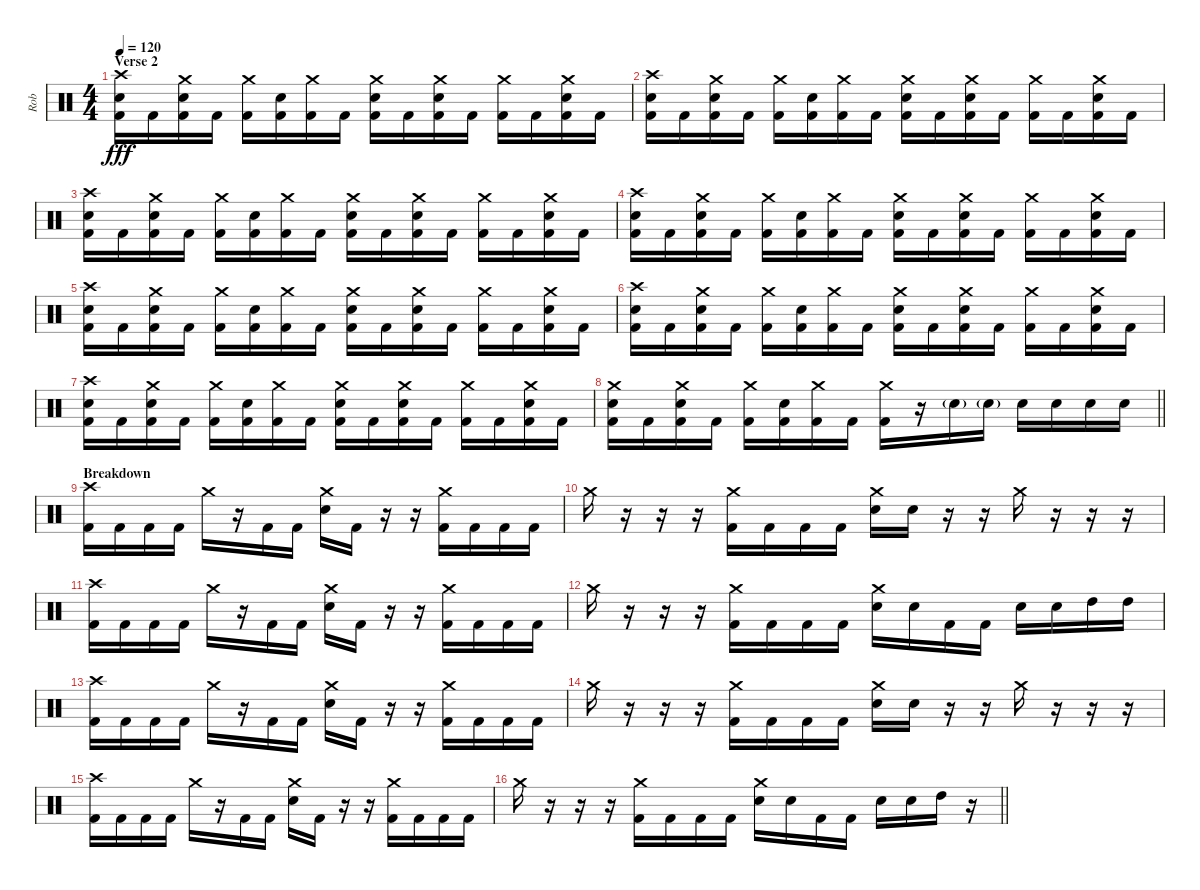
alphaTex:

\track ("Rob" "Rob") {instrument percussion}
\staff {score}
\articulation defaults
\ts (4 4)
\section ("" "Verse 2")
\tempo 120
\clef neutral
\ks c
("Crash high (hit)" "Electric Snare (hit)" "Kick (hit) 2").16{dy fff} "Kick (hit) 2".16 ("Crash medium (hit)" "Electric Snare (hit)" "Kick (hit) 2").16 "Kick (hit) 2".16 ("Crash medium (hit)" "Kick (hit) 2").16 ("Electric Snare (hit)" "Kick (hit) 2").16 ("Crash medium (hit)" "Kick (hit) 2").16 "Kick (hit) 2".16 ("Crash medium (hit)" "Electric Snare (hit)" "Kick (hit) 2").16 "Kick (hit) 2".16 ("Crash medium (hit)" "Electric Snare (hit)" "Kick (hit) 2").16 "Kick (hit) 2".16 ("Crash medium (hit)" "Kick (hit) 2").16 "Kick (hit) 2".16 ("Crash medium (hit)" "Electric Snare (hit)" "Kick (hit) 2").16 "Kick (hit) 2".16 |
("Crash high (hit)" "Electric Snare (hit)" "Kick (hit) 2").16 "Kick (hit) 2".16 ("Crash medium (hit)" "Electric Snare (hit)" "Kick (hit) 2").16 "Kick (hit) 2".16 ("Crash medium (hit)" "Kick (hit) 2").16 ("Electric Snare (hit)" "Kick (hit) 2").16 ("Crash medium (hit)" "Kick (hit) 2").16 "Kick (hit) 2".16 ("Crash medium (hit)" "Electric Snare (hit)" "Kick (hit) 2").16 "Kick (hit) 2".16 ("Crash medium (hit)" "Electric Snare (hit)" "Kick (hit) 2").16 "Kick (hit) 2".16 ("Crash medium (hit)" "Kick (hit) 2").16 "Kick (hit) 2".16 ("Crash medium (hit)" "Electric Snare (hit)" "Kick (hit) 2").16 "Kick (hit) 2".16 |
("Crash high (hit)" "Electric Snare (hit)" "Kick (hit) 2").16 "Kick (hit) 2".16 ("Crash medium (hit)" "Electric Snare (hit)" "Kick (hit) 2").16 "Kick (hit) 2".16 ("Crash medium (hit)" "Kick (hit) 2").16 ("Electric Snare (hit)" "Kick (hit) 2").16 ("Crash medium (hit)" "Kick (hit) 2").16 "Kick (hit) 2".16 ("Crash medium (hit)" "Electric Snare (hit)" "Kick (hit) 2").16 "Kick (hit) 2".16 ("Crash medium (hit)" "Electric Snare (hit)" "Kick (hit) 2").16 "Kick (hit) 2".16 ("Crash medium (hit)" "Kick (hit) 2").16 "Kick (hit) 2".16 ("Crash medium (hit)" "Electric Snare (hit)" "Kick (hit) 2").16 "Kick (hit) 2".16 |
("Crash high (hit)" "Electric Snare (hit)" "Kick (hit) 2").16 "Kick (hit) 2".16 ("Crash medium (hit)" "Electric Snare (hit)" "Kick (hit) 2").16 "Kick (hit) 2".16 ("Crash medium (hit)" "Kick (hit) 2").16 ("Electric Snare (hit)" "Kick (hit) 2").16 ("Crash medium (hit)" "Kick (hit) 2").16 "Kick (hit) 2".16 ("Crash medium (hit)" "Electric Snare (hit)" "Kick (hit) 2").16 "Kick (hit) 2".16 ("Crash medium (hit)" "Electric Snare (hit)" "Kick (hit) 2").16 "Kick (hit) 2".16 ("Crash medium (hit)" "Kick (hit) 2").16 "Kick (hit) 2".16 ("Crash medium (hit)" "Electric Snare (hit)" "Kick (hit) 2").16 "Kick (hit) 2".16 |
("Crash high (hit)" "Electric Snare (hit)" "Kick (hit) 2").16 "Kick (hit) 2".16 ("Crash medium (hit)" "Electric Snare (hit)" "Kick (hit) 2").16 "Kick (hit) 2".16 ("Crash medium (hit)" "Kick (hit) 2").16 ("Electric Snare (hit)" "Kick (hit) 2").16 ("Crash medium (hit)" "Kick (hit) 2").16 "Kick (hit) 2".16 ("Crash medium (hit)" "Electric Snare (hit)" "Kick (hit) 2").16 "Kick (hit) 2".16 ("Crash medium (hit)" "Electric Snare (hit)" "Kick (hit) 2").16 "Kick (hit) 2".16 ("Crash medium (hit)" "Kick (hit) 2").16 "Kick (hit) 2".16 ("Crash medium (hit)" "Electric Snare (hit)" "Kick (hit) 2").16 "Kick (hit) 2".16 |
("Crash high (hit)" "Electric Snare (hit)" "Kick (hit) 2").16 "Kick (hit) 2".16 ("Crash medium (hit)" "Electric Snare (hit)" "Kick (hit) 2").16 "Kick (hit) 2".16 ("Crash medium (hit)" "Kick (hit) 2").16 ("Electric Snare (hit)" "Kick (hit) 2").16 ("Crash medium (hit)" "Kick (hit) 2").16 "Kick (hit) 2".16 ("Crash medium (hit)" "Electric Snare (hit)" "Kick (hit) 2").16 "Kick (hit) 2".16 ("Crash medium (hit)" "Electric Snare (hit)" "Kick (hit) 2").16 "Kick (hit) 2".16 ("Crash medium (hit)" "Kick (hit) 2").16 "Kick (hit) 2".16 ("Crash medium (hit)" "Electric Snare (hit)" "Kick (hit) 2").16 "Kick (hit) 2".16 |
("Crash high (hit)" "Electric Snare (hit)" "Kick (hit) 2").16 "Kick (hit) 2".16 ("Crash medium (hit)" "Electric Snare (hit)" "Kick (hit) 2").16 "Kick (hit) 2".16 ("Crash medium (hit)" "Kick (hit) 2").16 ("Electric Snare (hit)" "Kick (hit) 2").16 ("Crash medium (hit)" "Kick (hit) 2").16 "Kick (hit) 2".16 ("Crash medium (hit)" "Electric Snare (hit)" "Kick (hit) 2").16 "Kick (hit) 2".16 ("Crash medium (hit)" "Electric Snare (hit)" "Kick (hit) 2").16 "Kick (hit) 2".16 ("Crash medium (hit)" "Kick (hit) 2").16 "Kick (hit) 2".16 ("Crash medium (hit)" "Electric Snare (hit)" "Kick (hit) 2").16 "Kick (hit) 2".16 |
\barLineRight lightlight
("Crash medium (hit)" "Electric Snare (hit)" "Kick (hit) 2").16 "Kick (hit) 2".16 ("Crash medium (hit)" "Electric Snare (hit)" "Kick (hit) 2").16 "Kick (hit) 2".16 ("Crash medium (hit)" "Kick (hit) 2").16 ("Electric Snare (hit)" "Kick (hit) 2").16 ("Crash medium (hit)" "Kick (hit) 2").16 "Kick (hit) 2".16 ("Crash medium (hit)" "Kick (hit) 2").16 r.16 "Electric Snare (hit)"{g}.16 "Electric Snare (hit)"{g}.16 "Electric Snare (hit)".16 "Electric Snare (hit)".16 "Electric Snare (hit)".16 "Electric Snare (hit)".16 |
\section ("" "Breakdown")
("Crash high (hit)" "Kick (hit) 2").16 "Kick (hit) 2".16 "Kick (hit) 2".16 "Kick (hit) 2".16 "Crash medium (hit)".16 r.16 "Kick (hit) 2".16 "Kick (hit) 2".16 ("Crash medium (hit)" "Electric Snare (hit)").16 "Kick (hit) 2".16 r.16 r.16 ("Crash medium (hit)" "Kick (hit) 2").16 "Kick (hit) 2".16 "Kick (hit) 2".16 "Kick (hit) 2".16 |
"Crash medium (hit)".16 r.16 r.16 r.16 ("Crash medium (hit)" "Kick (hit) 2").16 "Kick (hit) 2".16 "Kick (hit) 2".16 "Kick (hit) 2".16 ("Crash medium (hit)" "Electric Snare (hit)").16 "Electric Snare (hit)".16 r.16 r.16 "Crash medium (hit)".16 r.16 r.16 r.16 |
("Crash high (hit)" "Kick (hit) 2").16 "Kick (hit) 2".16 "Kick (hit) 2".16 "Kick (hit) 2".16 "Crash medium (hit)".16 r.16 "Kick (hit) 2".16 "Kick (hit) 2".16 ("Crash medium (hit)" "Electric Snare (hit)").16 "Kick (hit) 2".16 r.16 r.16 ("Crash medium (hit)" "Kick (hit) 2").16 "Kick (hit) 2".16 "Kick (hit) 2".16 "Kick (hit) 2".16 |
"Crash medium (hit)".16 r.16 r.16 r.16 ("Crash medium (hit)" "Kick (hit) 2").16 "Kick (hit) 2".16 "Kick (hit) 2".16 "Kick (hit) 2".16 ("Crash medium (hit)" "Electric Snare (hit)").16 "Electric Snare (hit)".16 "Kick (hit) 2".16 "Kick (hit) 2".16 "Electric Snare (hit)".16 "Electric Snare (hit)".16 "High Tom (hit)".16 "High Tom (hit)".16 |
("Crash high (hit)" "Kick (hit) 2").16 "Kick (hit) 2".16 "Kick (hit) 2".16 "Kick (hit) 2".16 "Crash medium (hit)".16 r.16 "Kick (hit) 2".16 "Kick (hit) 2".16 ("Crash medium (hit)" "Electric Snare (hit)").16 "Kick (hit) 2".16 r.16 r.16 ("Crash medium (hit)" "Kick (hit) 2").16 "Kick (hit) 2".16 "Kick (hit) 2".16 "Kick (hit) 2".16 |
"Crash medium (hit)".16 r.16 r.16 r.16 ("Crash medium (hit)" "Kick (hit) 2").16 "Kick (hit) 2".16 "Kick (hit) 2".16 "Kick (hit) 2".16 ("Crash medium (hit)" "Electric Snare (hit)").16 "Electric Snare (hit)".16 r.16 r.16 "Crash medium (hit)".16 r.16 r.16 r.16 |
("Crash high (hit)" "Kick (hit) 2").16 "Kick (hit) 2".16 "Kick (hit) 2".16 "Kick (hit) 2".16 "Crash medium (hit)".16 r.16 "Kick (hit) 2".16 "Kick (hit) 2".16 ("Crash medium (hit)" "Electric Snare (hit)").16 "Kick (hit) 2".16 r.16 r.16 ("Crash medium (hit)" "Kick (hit) 2").16 "Kick (hit) 2".16 "Kick (hit) 2".16 "Kick (hit) 2".16 |
\barLineRight lightlight "Crash medium (hit)".16
r.16 r.16 r.16 ("Crash medium (hit)" "Kick (hit) 2").16 "Kick (hit) 2".16 "Kick (hit) 2".16 "Kick (hit) 2".16 ("Crash medium (hit)" "Electric Snare (hit)").16 "Electric Snare (hit)".16 "Kick (hit) 2".16 "Kick (hit) 2".16 "Electric Snare (hit)".16 "Electric Snare (hit)".16 "High Tom (hit)".16 r.16
